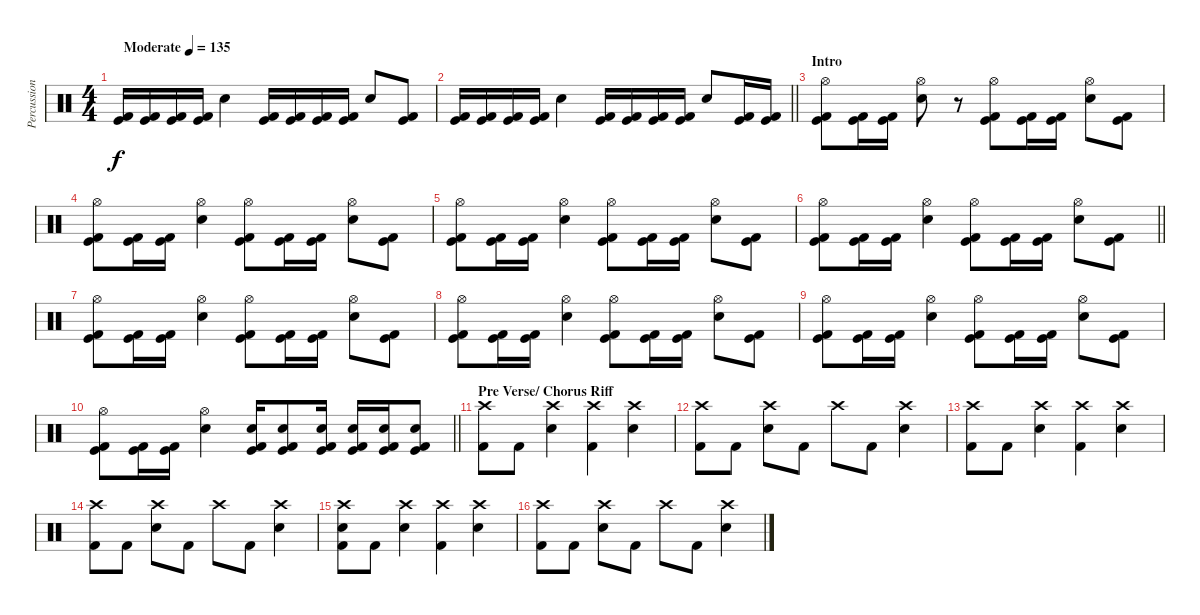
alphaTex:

\track ("Percussion" "Percussion") {instrument percussion}
\staff {score}
\articulation defaults
\ts (4 4)
\tempo (135 "Moderate")
\clef neutral
\ks c
("Kick (hit)" "Kick (hit) 2").16{dy f volume 10} ("Kick (hit)" "Kick (hit) 2").16 ("Kick (hit)" "Kick (hit) 2").16 ("Kick (hit)" "Kick (hit) 2").16 "Electric Snare (hit)".4 ("Kick (hit)" "Kick (hit) 2").16 ("Kick (hit)" "Kick (hit) 2").16 ("Kick (hit)" "Kick (hit) 2").16 ("Kick (hit)" "Kick (hit) 2").16 "Electric Snare (hit)".8 ("Kick (hit)" "Kick (hit) 2").8 |
\barLineRight lightlight
("Kick (hit)" "Kick (hit) 2").16 ("Kick (hit)" "Kick (hit) 2").16 ("Kick (hit)" "Kick (hit) 2").16 ("Kick (hit)" "Kick (hit) 2").16 "Electric Snare (hit)".4 ("Kick (hit)" "Kick (hit) 2").16 ("Kick (hit)" "Kick (hit) 2").16 ("Kick (hit)" "Kick (hit) 2").16 ("Kick (hit)" "Kick (hit) 2").16 "Electric Snare (hit)".8 ("Kick (hit)" "Kick (hit) 2").16 ("Kick (hit)" "Kick (hit) 2").16 |
\section ("" "Intro")
("Hi-Hat (open)" "Kick (hit)" "Kick (hit) 2").8{volume 13} ("Kick (hit)" "Kick (hit) 2").16 ("Kick (hit)" "Kick (hit) 2").16 ("Hi-Hat (open)" "Electric Snare (hit)").8 r.8 ("Hi-Hat (open)" "Kick (hit)" "Kick (hit) 2").8 ("Kick (hit)" "Kick (hit) 2").16 ("Kick (hit)" "Kick (hit) 2").16 ("Hi-Hat (open)" "Electric Snare (hit)").8 ("Kick (hit)" "Kick (hit) 2").8 |
("Hi-Hat (open)" "Kick (hit)" "Kick (hit) 2").8 ("Kick (hit)" "Kick (hit) 2").16 ("Kick (hit)" "Kick (hit) 2").16 ("Hi-Hat (open)" "Electric Snare (hit)").4 ("Hi-Hat (open)" "Kick (hit)" "Kick (hit) 2").8 ("Kick (hit)" "Kick (hit) 2").16 ("Kick (hit)" "Kick (hit) 2").16 ("Hi-Hat (open)" "Electric Snare (hit)").8 ("Kick (hit)" "Kick (hit) 2").8 |
("Hi-Hat (open)" "Kick (hit)" "Kick (hit) 2").8 ("Kick (hit)" "Kick (hit) 2").16 ("Kick (hit)" "Kick (hit) 2").16 ("Hi-Hat (open)" "Electric Snare (hit)").4 ("Hi-Hat (open)" "Kick (hit)" "Kick (hit) 2").8 ("Kick (hit)" "Kick (hit) 2").16 ("Kick (hit)" "Kick (hit) 2").16 ("Hi-Hat (open)" "Electric Snare (hit)").8 ("Kick (hit)" "Kick (hit) 2").8 |
\barLineRight lightlight
("Hi-Hat (open)" "Kick (hit)" "Kick (hit) 2").8 ("Kick (hit)" "Kick (hit) 2").16 ("Kick (hit)" "Kick (hit) 2").16 ("Hi-Hat (open)" "Electric Snare (hit)").4 ("Hi-Hat (open)" "Kick (hit)" "Kick (hit) 2").8 ("Kick (hit)" "Kick (hit) 2").16 ("Kick (hit)" "Kick (hit) 2").16 ("Hi-Hat (open)" "Electric Snare (hit)").8 ("Kick (hit)" "Kick (hit) 2").8 |
("Hi-Hat (open)" "Kick (hit)" "Kick (hit) 2").8{volume 16} ("Kick (hit)" "Kick (hit) 2").16 ("Kick (hit)" "Kick (hit) 2").16 ("Hi-Hat (open)" "Electric Snare (hit)").4 ("Hi-Hat (open)" "Kick (hit)" "Kick (hit) 2").8 ("Kick (hit)" "Kick (hit) 2").16 ("Kick (hit)" "Kick (hit) 2").16 ("Hi-Hat (open)" "Electric Snare (hit)").8 ("Kick (hit)" "Kick (hit) 2").8 |
("Hi-Hat (open)" "Kick (hit)" "Kick (hit) 2").8 ("Kick (hit)" "Kick (hit) 2").16 ("Kick (hit)" "Kick (hit) 2").16 ("Hi-Hat (open)" "Electric Snare (hit)").4 ("Hi-Hat (open)" "Kick (hit)" "Kick (hit) 2").8 ("Kick (hit)" "Kick (hit) 2").16 ("Kick (hit)" "Kick (hit) 2").16 ("Hi-Hat (open)" "Electric Snare (hit)").8 ("Kick (hit)" "Kick (hit) 2").8 |
("Hi-Hat (open)" "Kick (hit)" "Kick (hit) 2").8 ("Kick (hit)" "Kick (hit) 2").16 ("Kick (hit)" "Kick (hit) 2").16 ("Hi-Hat (open)" "Electric Snare (hit)").4 ("Hi-Hat (open)" "Kick (hit)" "Kick (hit) 2").8 ("Kick (hit)" "Kick (hit) 2").16 ("Kick (hit)" "Kick (hit) 2").16 ("Hi-Hat (open)" "Electric Snare (hit)").8 ("Kick (hit)" "Kick (hit) 2").8 |
\barLineRight lightlight
("Hi-Hat (open)" "Kick (hit)" "Kick (hit) 2").8 ("Kick (hit)" "Kick (hit) 2").16 ("Kick (hit)" "Kick (hit) 2").16 ("Hi-Hat (open)" "Electric Snare (hit)").4 ("Electric Snare (hit)" "Kick (hit)" "Kick (hit) 2").16 ("Electric Snare (hit)" "Kick (hit)" "Kick (hit) 2").8 ("Electric Snare (hit)" "Kick (hit)" "Kick (hit) 2").16 ("Electric Snare (hit)" "Kick (hit)" "Kick (hit) 2").16 ("Electric Snare (hit)" "Kick (hit)" "Kick (hit) 2").16 ("Electric Snare (hit)" "Kick (hit)" "Kick (hit) 2").8 |
\section ("" "Pre Verse/ Chorus Riff")
("Crash high (hit)" "Kick (hit) 2").8 "Kick (hit) 2".8 ("Crash high (hit)" "Electric Snare (hit)").4 ("Crash high (hit)" "Kick (hit) 2").4 ("Crash high (hit)" "Electric Snare (hit)").4 |
("Crash high (hit)" "Kick (hit) 2").8 "Kick (hit) 2".8 ("Crash high (hit)" "Electric Snare (hit)").8 "Kick (hit) 2".8 "Crash high (hit)".8 "Kick (hit) 2".8 ("Crash high (hit)" "Electric Snare (hit)").4 |
("Crash high (hit)" "Kick (hit) 2").8 "Kick (hit) 2".8 ("Crash high (hit)" "Electric Snare (hit)").4 ("Crash high (hit)" "Kick (hit) 2").4 ("Crash high (hit)" "Electric Snare (hit)").4 |
("Crash high (hit)" "Kick (hit) 2").8 "Kick (hit) 2".8 ("Crash high (hit)" "Electric Snare (hit)").8 "Kick (hit) 2".8 "Crash high (hit)".8 "Kick (hit) 2".8 ("Crash high (hit)" "Electric Snare (hit)").4 |
("Crash high (hit)" "Electric Snare (hit)" "Kick (hit) 2").8 "Kick (hit) 2".8 ("Crash high (hit)" "Electric Snare (hit)").4 ("Crash high (hit)" "Kick (hit) 2").4 ("Crash high (hit)" "Electric Snare (hit)").4 |
("Crash high (hit)" "Kick (hit) 2").8 "Kick (hit) 2".8 ("Crash high (hit)" "Electric Snare (hit)").8 "Kick (hit) 2".8 "Crash high (hit)".8 "Kick (hit) 2".8 ("Crash high (hit)" "Electric Snare (hit)").4
